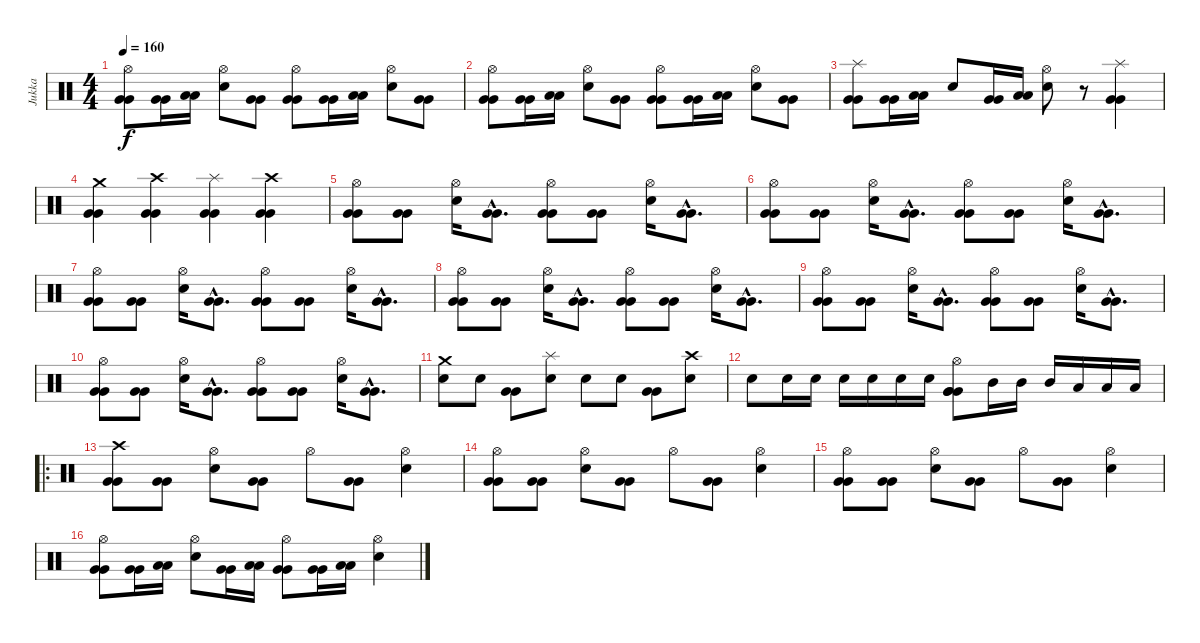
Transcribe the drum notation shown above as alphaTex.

\track ("Jukka" "Jukka") {instrument percussion}
\staff {score}
\articulation defaults
\ts (4 4)
\tempo 160
\clef neutral
\ks c
("Hi-Hat (open)" "Very Low Tom (hit)" "Very Low Tom (hit)").8{dy f} ("Very Low Tom (hit)" "Very Low Tom (hit)").16 ("Low Floor Tom (hit)" "Low Floor Tom (hit)").16 ("Hi-Hat (open)" "Electric Snare (hit)").8 ("Very Low Tom (hit)" "Very Low Tom (hit)").8 ("Hi-Hat (open)" "Very Low Tom (hit)" "Very Low Tom (hit)").8 ("Very Low Tom (hit)" "Very Low Tom (hit)").16 ("Low Floor Tom (hit)" "Low Floor Tom (hit)").16 ("Hi-Hat (open)" "Electric Snare (hit)").8 ("Very Low Tom (hit)" "Very Low Tom (hit)").8 |
("Hi-Hat (open)" "Very Low Tom (hit)" "Very Low Tom (hit)").8 ("Very Low Tom (hit)" "Very Low Tom (hit)").16 ("Low Floor Tom (hit)" "Low Floor Tom (hit)").16 ("Hi-Hat (open)" "Electric Snare (hit)").8 ("Very Low Tom (hit)" "Very Low Tom (hit)").8 ("Hi-Hat (open)" "Very Low Tom (hit)" "Very Low Tom (hit)").8 ("Very Low Tom (hit)" "Very Low Tom (hit)").16 ("Low Floor Tom (hit)" "Low Floor Tom (hit)").16 ("Hi-Hat (open)" "Electric Snare (hit)").8 ("Very Low Tom (hit)" "Very Low Tom (hit)").8 |
("Splash (hit)" "Very Low Tom (hit)" "Very Low Tom (hit)").8 ("Very Low Tom (hit)" "Very Low Tom (hit)").16 ("Low Floor Tom (hit)" "Low Floor Tom (hit)").16 "Electric Snare (hit)".8 ("Very Low Tom (hit)" "Very Low Tom (hit)").16 ("Low Floor Tom (hit)" "Low Floor Tom (hit)").16 ("Electric Snare (hit)" "Hi-Hat (open)").8 r.8 ("Splash (hit)" "Very Low Tom (hit)" "Very Low Tom (hit)").4 |
("Crash medium (hit)" "Very Low Tom (hit)" "Very Low Tom (hit)").4 ("Crash high (hit)" "Very Low Tom (hit)" "Very Low Tom (hit)").4 ("Splash (hit)" "Very Low Tom (hit)" "Very Low Tom (hit)").4 ("Crash high (hit)" "Very Low Tom (hit)" "Very Low Tom (hit)").4 |
("Hi-Hat (open)" "Very Low Tom (hit)" "Very Low Tom (hit)").8 ("Very Low Tom (hit)" "Very Low Tom (hit)").8 ("Electric Snare (hit)" "Hi-Hat (open)").16 ("Very Low Tom (hit)"{hac} "Very Low Tom (hit)"{hac}).8{d} ("Hi-Hat (open)" "Very Low Tom (hit)" "Very Low Tom (hit)").8 ("Very Low Tom (hit)" "Very Low Tom (hit)").8 ("Electric Snare (hit)" "Hi-Hat (open)").16 ("Very Low Tom (hit)"{hac} "Very Low Tom (hit)"{hac}).8{d} |
("Hi-Hat (open)" "Very Low Tom (hit)" "Very Low Tom (hit)").8 ("Very Low Tom (hit)" "Very Low Tom (hit)").8 ("Electric Snare (hit)" "Hi-Hat (open)").16 ("Very Low Tom (hit)"{hac} "Very Low Tom (hit)"{hac}).8{d} ("Hi-Hat (open)" "Very Low Tom (hit)" "Very Low Tom (hit)").8 ("Very Low Tom (hit)" "Very Low Tom (hit)").8 ("Electric Snare (hit)" "Hi-Hat (open)").16 ("Very Low Tom (hit)"{hac} "Very Low Tom (hit)"{hac}).8{d} |
("Hi-Hat (open)" "Very Low Tom (hit)" "Very Low Tom (hit)").8 ("Very Low Tom (hit)" "Very Low Tom (hit)").8 ("Electric Snare (hit)" "Hi-Hat (open)").16 ("Very Low Tom (hit)"{hac} "Very Low Tom (hit)"{hac}).8{d} ("Hi-Hat (open)" "Very Low Tom (hit)" "Very Low Tom (hit)").8 ("Very Low Tom (hit)" "Very Low Tom (hit)").8 ("Electric Snare (hit)" "Hi-Hat (open)").16 ("Very Low Tom (hit)"{hac} "Very Low Tom (hit)"{hac}).8{d} |
("Hi-Hat (open)" "Very Low Tom (hit)" "Very Low Tom (hit)").8 ("Very Low Tom (hit)" "Very Low Tom (hit)").8 ("Electric Snare (hit)" "Hi-Hat (open)").16 ("Very Low Tom (hit)"{hac} "Very Low Tom (hit)"{hac}).8{d} ("Hi-Hat (open)" "Very Low Tom (hit)" "Very Low Tom (hit)").8 ("Very Low Tom (hit)" "Very Low Tom (hit)").8 ("Electric Snare (hit)" "Hi-Hat (open)").16 ("Very Low Tom (hit)"{hac} "Very Low Tom (hit)"{hac}).8{d} |
("Hi-Hat (open)" "Very Low Tom (hit)" "Very Low Tom (hit)").8 ("Very Low Tom (hit)" "Very Low Tom (hit)").8 ("Electric Snare (hit)" "Hi-Hat (open)").16 ("Very Low Tom (hit)"{hac} "Very Low Tom (hit)"{hac}).8{d} ("Hi-Hat (open)" "Very Low Tom (hit)" "Very Low Tom (hit)").8 ("Very Low Tom (hit)" "Very Low Tom (hit)").8 ("Electric Snare (hit)" "Hi-Hat (open)").16 ("Very Low Tom (hit)"{hac} "Very Low Tom (hit)"{hac}).8{d} |
("Hi-Hat (open)" "Very Low Tom (hit)" "Very Low Tom (hit)").8 ("Very Low Tom (hit)" "Very Low Tom (hit)").8 ("Electric Snare (hit)" "Hi-Hat (open)").16 ("Very Low Tom (hit)"{hac} "Very Low Tom (hit)"{hac}).8{d} ("Hi-Hat (open)" "Very Low Tom (hit)" "Very Low Tom (hit)").8 ("Very Low Tom (hit)" "Very Low Tom (hit)").8 ("Electric Snare (hit)" "Hi-Hat (open)").16 ("Very Low Tom (hit)"{hac} "Very Low Tom (hit)"{hac}).8{d} |
("Electric Snare (hit)" "Crash medium (hit)").8 "Electric Snare (hit)".8 ("Very Low Tom (hit)" "Very Low Tom (hit)").8 ("Electric Snare (hit)" "Splash (hit)").8 "Electric Snare (hit)".8 "Electric Snare (hit)".8 ("Very Low Tom (hit)" "Very Low Tom (hit)").8 ("Electric Snare (hit)" "Crash high (hit)").8 |
"Electric Snare (hit)".8 "Electric Snare (hit)".16 "Electric Snare (hit)".16 "Electric Snare (hit)".16 "Electric Snare (hit)".16 "Electric Snare (hit)".16 "Electric Snare (hit)".16 ("Very Low Tom (hit)" "Hi-Hat (open)" "Very Low Tom (hit)" "Very Low Tom (hit)").8 "Mid Tom (hit)".16 "Mid Tom (hit)".16 "Mid Tom (hit)".16 "Low Tom (hit)".16 "Low Tom (hit)".16 "Low Tom (hit)".16 |
\ro
("Crash high (hit)" "Very Low Tom (hit)" "Very Low Tom (hit)").8 ("Very Low Tom (hit)" "Very Low Tom (hit)").8 ("Electric Snare (hit)" "Hi-Hat (open)").8 ("Very Low Tom (hit)" "Very Low Tom (hit)").8 "Hi-Hat (open)".8 ("Very Low Tom (hit)" "Very Low Tom (hit)").8 ("Electric Snare (hit)" "Hi-Hat (open)").4 |
("Hi-Hat (open)" "Very Low Tom (hit)" "Very Low Tom (hit)").8 ("Very Low Tom (hit)" "Very Low Tom (hit)").8 ("Electric Snare (hit)" "Hi-Hat (open)").8 ("Very Low Tom (hit)" "Very Low Tom (hit)").8 "Hi-Hat (open)".8 ("Very Low Tom (hit)" "Very Low Tom (hit)").8 ("Electric Snare (hit)" "Hi-Hat (open)").4 |
("Hi-Hat (open)" "Very Low Tom (hit)" "Very Low Tom (hit)").8 ("Very Low Tom (hit)" "Very Low Tom (hit)").8 ("Electric Snare (hit)" "Hi-Hat (open)").8 ("Very Low Tom (hit)" "Very Low Tom (hit)").8 "Hi-Hat (open)".8 ("Very Low Tom (hit)" "Very Low Tom (hit)").8 ("Electric Snare (hit)" "Hi-Hat (open)").4 |
("Hi-Hat (open)" "Very Low Tom (hit)" "Very Low Tom (hit)").8 ("Very Low Tom (hit)" "Very Low Tom (hit)").16 ("Low Floor Tom (hit)" "Low Floor Tom (hit)").16 ("Electric Snare (hit)" "Hi-Hat (open)").8 ("Very Low Tom (hit)" "Very Low Tom (hit)").16 ("Low Floor Tom (hit)" "Low Floor Tom (hit)").16 ("Hi-Hat (open)" "Very Low Tom (hit)" "Very Low Tom (hit)").8 ("Very Low Tom (hit)" "Very Low Tom (hit)").16 ("Low Floor Tom (hit)" "Low Floor Tom (hit)").16 ("Electric Snare (hit)" "Hi-Hat (open)").4
